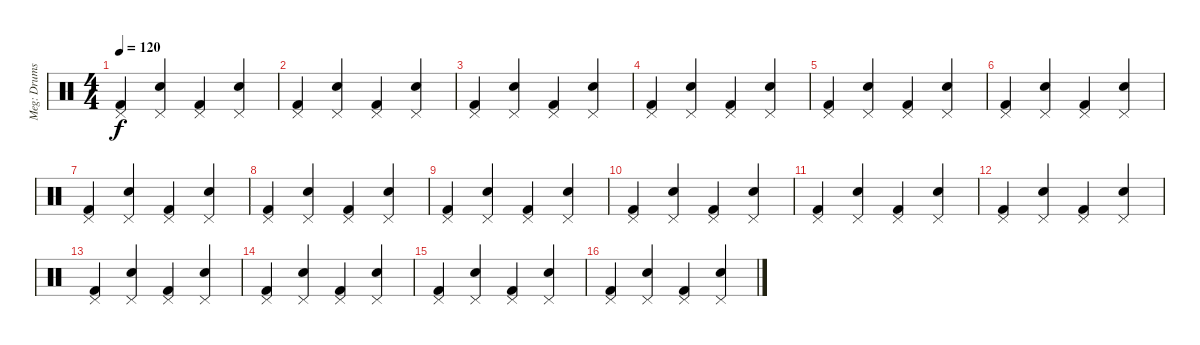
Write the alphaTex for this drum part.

\track ("Meg: Drums" "Meg: Drums") {instrument percussion}
\staff {score}
\articulation defaults
\ts (4 4)
\tempo 120
\clef neutral
\ks c
("Kick (hit) 2" "Pedal Hi-Hat (hit)").4{dy f} ("Snare (hit) 2" "Pedal Hi-Hat (hit)").4 ("Kick (hit) 2" "Pedal Hi-Hat (hit)").4 ("Snare (hit) 2" "Pedal Hi-Hat (hit)").4 |
("Kick (hit) 2" "Pedal Hi-Hat (hit)").4 ("Snare (hit) 2" "Pedal Hi-Hat (hit)").4 ("Kick (hit) 2" "Pedal Hi-Hat (hit)").4 ("Snare (hit) 2" "Pedal Hi-Hat (hit)").4 |
("Kick (hit) 2" "Pedal Hi-Hat (hit)").4 ("Snare (hit) 2" "Pedal Hi-Hat (hit)").4 ("Kick (hit) 2" "Pedal Hi-Hat (hit)").4 ("Snare (hit) 2" "Pedal Hi-Hat (hit)").4 |
("Kick (hit) 2" "Pedal Hi-Hat (hit)").4 ("Snare (hit) 2" "Pedal Hi-Hat (hit)").4 ("Kick (hit) 2" "Pedal Hi-Hat (hit)").4 ("Snare (hit) 2" "Pedal Hi-Hat (hit)").4 |
("Kick (hit) 2" "Pedal Hi-Hat (hit)").4 ("Snare (hit) 2" "Pedal Hi-Hat (hit)").4 ("Kick (hit) 2" "Pedal Hi-Hat (hit)").4 ("Snare (hit) 2" "Pedal Hi-Hat (hit)").4 |
("Kick (hit) 2" "Pedal Hi-Hat (hit)").4 ("Snare (hit) 2" "Pedal Hi-Hat (hit)").4 ("Kick (hit) 2" "Pedal Hi-Hat (hit)").4 ("Snare (hit) 2" "Pedal Hi-Hat (hit)").4 |
("Kick (hit) 2" "Pedal Hi-Hat (hit)").4 ("Snare (hit) 2" "Pedal Hi-Hat (hit)").4 ("Kick (hit) 2" "Pedal Hi-Hat (hit)").4 ("Snare (hit) 2" "Pedal Hi-Hat (hit)").4 |
("Kick (hit) 2" "Pedal Hi-Hat (hit)").4 ("Snare (hit) 2" "Pedal Hi-Hat (hit)").4 ("Kick (hit) 2" "Pedal Hi-Hat (hit)").4 ("Snare (hit) 2" "Pedal Hi-Hat (hit)").4 |
("Kick (hit) 2" "Pedal Hi-Hat (hit)").4 ("Snare (hit) 2" "Pedal Hi-Hat (hit)").4 ("Kick (hit) 2" "Pedal Hi-Hat (hit)").4 ("Snare (hit) 2" "Pedal Hi-Hat (hit)").4 |
("Kick (hit) 2" "Pedal Hi-Hat (hit)").4 ("Snare (hit) 2" "Pedal Hi-Hat (hit)").4 ("Kick (hit) 2" "Pedal Hi-Hat (hit)").4 ("Snare (hit) 2" "Pedal Hi-Hat (hit)").4 |
("Kick (hit) 2" "Pedal Hi-Hat (hit)").4 ("Snare (hit) 2" "Pedal Hi-Hat (hit)").4 ("Kick (hit) 2" "Pedal Hi-Hat (hit)").4 ("Snare (hit) 2" "Pedal Hi-Hat (hit)").4 |
("Kick (hit) 2" "Pedal Hi-Hat (hit)").4 ("Snare (hit) 2" "Pedal Hi-Hat (hit)").4 ("Kick (hit) 2" "Pedal Hi-Hat (hit)").4 ("Snare (hit) 2" "Pedal Hi-Hat (hit)").4 |
("Kick (hit) 2" "Pedal Hi-Hat (hit)").4 ("Snare (hit) 2" "Pedal Hi-Hat (hit)").4 ("Kick (hit) 2" "Pedal Hi-Hat (hit)").4 ("Snare (hit) 2" "Pedal Hi-Hat (hit)").4 |
("Kick (hit) 2" "Pedal Hi-Hat (hit)").4 ("Snare (hit) 2" "Pedal Hi-Hat (hit)").4 ("Kick (hit) 2" "Pedal Hi-Hat (hit)").4 ("Snare (hit) 2" "Pedal Hi-Hat (hit)").4 |
("Kick (hit) 2" "Pedal Hi-Hat (hit)").4 ("Snare (hit) 2" "Pedal Hi-Hat (hit)").4 ("Kick (hit) 2" "Pedal Hi-Hat (hit)").4 ("Snare (hit) 2" "Pedal Hi-Hat (hit)").4 |
("Kick (hit) 2" "Pedal Hi-Hat (hit)").4 ("Snare (hit) 2" "Pedal Hi-Hat (hit)").4 ("Kick (hit) 2" "Pedal Hi-Hat (hit)").4 ("Snare (hit) 2" "Pedal Hi-Hat (hit)").4
